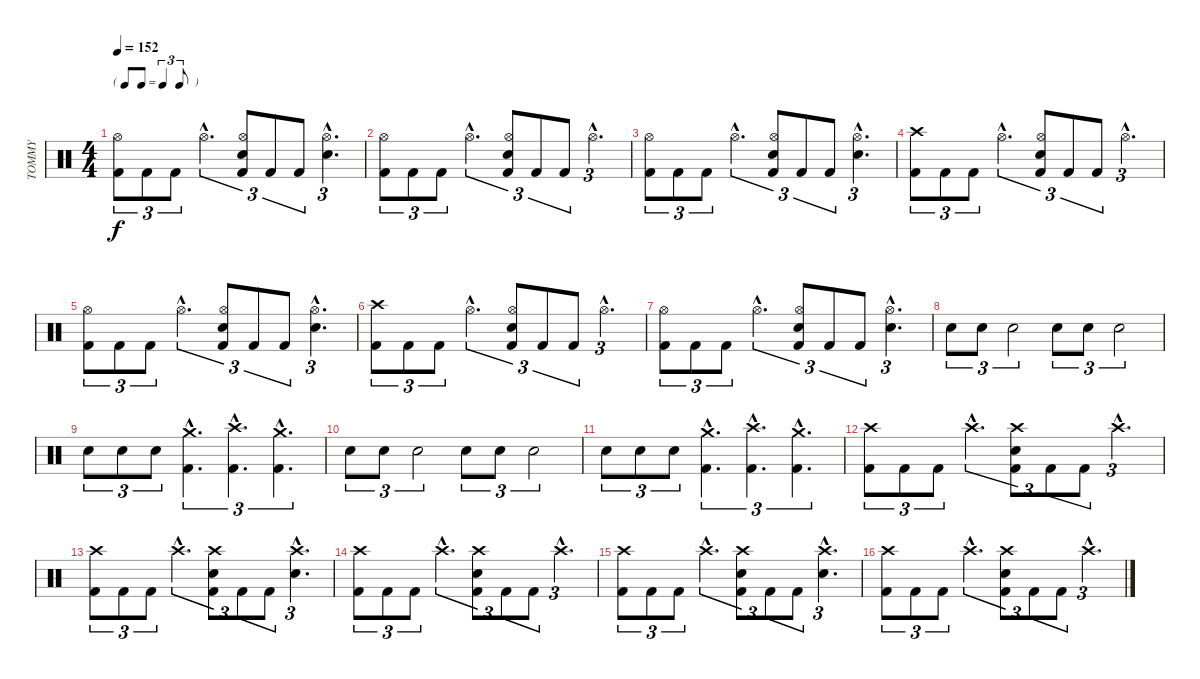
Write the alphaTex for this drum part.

\track ("TOMMY" "TOMMY") {instrument percussion}
\staff {score}
\articulation defaults
\ts (4 4)
\tf triplet8th
\tempo 152
\clef neutral
\ks c
("Kick (hit) 2" "Hi-Hat (open)").8{tu (3 2) dy f} "Kick (hit) 2".8{tu (3 2)} "Kick (hit) 2".8{tu (3 2)} "Hi-Hat (open)"{hac}.4{d tu (3 2)} ("Snare (hit) 2" "Kick (hit) 2" "Hi-Hat (open)").8{tu (3 2)} "Kick (hit) 2".8{tu (3 2)} "Kick (hit) 2".8{tu (3 2)} ("Snare (hit) 2"{hac} "Hi-Hat (open)"{hac}).4{d tu (3 2)} |
("Kick (hit) 2" "Hi-Hat (open)").8{tu (3 2)} "Kick (hit) 2".8{tu (3 2)} "Kick (hit) 2".8{tu (3 2)} "Hi-Hat (open)"{hac}.4{d tu (3 2)} ("Snare (hit) 2" "Kick (hit) 2" "Hi-Hat (open)").8{tu (3 2)} "Kick (hit) 2".8{tu (3 2)} "Kick (hit) 2".8{tu (3 2)} "Hi-Hat (open)"{hac}.4{d tu (3 2)} |
("Kick (hit) 2" "Hi-Hat (open)").8{tu (3 2)} "Kick (hit) 2".8{tu (3 2)} "Kick (hit) 2".8{tu (3 2)} "Hi-Hat (open)"{hac}.4{d tu (3 2)} ("Snare (hit) 2" "Kick (hit) 2" "Hi-Hat (open)").8{tu (3 2)} "Kick (hit) 2".8{tu (3 2)} "Kick (hit) 2".8{tu (3 2)} ("Snare (hit) 2"{hac} "Hi-Hat (open)"{hac}).4{d tu (3 2)} |
("Kick (hit) 2" "Crash high (hit)").8{tu (3 2)} "Kick (hit) 2".8{tu (3 2)} "Kick (hit) 2".8{tu (3 2)} "Hi-Hat (open)"{hac}.4{d tu (3 2)} ("Snare (hit) 2" "Kick (hit) 2" "Hi-Hat (open)").8{tu (3 2)} "Kick (hit) 2".8{tu (3 2)} "Kick (hit) 2".8{tu (3 2)} "Hi-Hat (open)"{hac}.4{d tu (3 2)} |
("Kick (hit) 2" "Hi-Hat (open)").8{tu (3 2)} "Kick (hit) 2".8{tu (3 2)} "Kick (hit) 2".8{tu (3 2)} "Hi-Hat (open)"{hac}.4{d tu (3 2)} ("Snare (hit) 2" "Kick (hit) 2" "Hi-Hat (open)").8{tu (3 2)} "Kick (hit) 2".8{tu (3 2)} "Kick (hit) 2".8{tu (3 2)} ("Snare (hit) 2"{hac} "Hi-Hat (open)"{hac}).4{d tu (3 2)} |
("Kick (hit) 2" "Crash high (hit)").8{tu (3 2)} "Kick (hit) 2".8{tu (3 2)} "Kick (hit) 2".8{tu (3 2)} "Hi-Hat (open)"{hac}.4{d tu (3 2)} ("Snare (hit) 2" "Kick (hit) 2" "Hi-Hat (open)").8{tu (3 2)} "Kick (hit) 2".8{tu (3 2)} "Kick (hit) 2".8{tu (3 2)} "Hi-Hat (open)"{hac}.4{d tu (3 2)} |
("Kick (hit) 2" "Hi-Hat (open)").8{tu (3 2)} "Kick (hit) 2".8{tu (3 2)} "Kick (hit) 2".8{tu (3 2)} "Hi-Hat (open)"{hac}.4{d tu (3 2)} ("Snare (hit) 2" "Kick (hit) 2" "Hi-Hat (open)").8{tu (3 2)} "Kick (hit) 2".8{tu (3 2)} "Kick (hit) 2".8{tu (3 2)} ("Snare (hit) 2"{hac} "Hi-Hat (open)"{hac}).4{d tu (3 2)} |
"Snare (hit) 2".8{tu (3 2)} "Snare (hit) 2".8{tu (3 2)} "Snare (hit) 2".2{tu (3 2)} "Snare (hit) 2".8{tu (3 2)} "Snare (hit) 2".8{tu (3 2)} "Snare (hit) 2".2{tu (3 2)} |
"Snare (hit) 2".8{tu (3 2)} "Snare (hit) 2".8{tu (3 2)} "Snare (hit) 2".8{tu (3 2)} ("Kick (hit) 2"{hac} "Crash medium (hit)"{hac}).4{d tu (3 2)} ("Kick (hit) 2"{hac} "Crash high (hit)"{hac}).4{d tu (3 2)} ("Kick (hit) 2"{hac} "Crash medium (hit)"{hac}).4{d tu (3 2)} |
"Snare (hit) 2".8{tu (3 2)} "Snare (hit) 2".8{tu (3 2)} "Snare (hit) 2".2{tu (3 2)} "Snare (hit) 2".8{tu (3 2)} "Snare (hit) 2".8{tu (3 2)} "Snare (hit) 2".2{tu (3 2)} |
"Snare (hit) 2".8{tu (3 2)} "Snare (hit) 2".8{tu (3 2)} "Snare (hit) 2".8{tu (3 2)} ("Kick (hit) 2"{hac} "Crash medium (hit)"{hac}).4{d tu (3 2)} ("Kick (hit) 2"{hac} "Crash high (hit)"{hac}).4{d tu (3 2)} ("Kick (hit) 2"{hac} "Crash medium (hit)"{hac}).4{d tu (3 2)} |
("Kick (hit) 2" "Crash high (hit)").8{tu (3 2)} "Kick (hit) 2".8{tu (3 2)} "Kick (hit) 2".8{tu (3 2)} "Crash high (hit)"{hac}.4{d tu (3 2)} ("Snare (hit) 2" "Kick (hit) 2" "Crash high (hit)").8{tu (3 2)} "Kick (hit) 2".8{tu (3 2)} "Kick (hit) 2".8{tu (3 2)} "Crash high (hit)"{hac}.4{d tu (3 2)} |
("Kick (hit) 2" "Crash high (hit)").8{tu (3 2)} "Kick (hit) 2".8{tu (3 2)} "Kick (hit) 2".8{tu (3 2)} "Crash high (hit)"{hac}.4{d tu (3 2)} ("Snare (hit) 2" "Kick (hit) 2" "Crash high (hit)").8{tu (3 2)} "Kick (hit) 2".8{tu (3 2)} "Kick (hit) 2".8{tu (3 2)} ("Snare (hit) 2"{hac} "Crash high (hit)"{hac}).4{d tu (3 2)} |
("Kick (hit) 2" "Crash high (hit)").8{tu (3 2)} "Kick (hit) 2".8{tu (3 2)} "Kick (hit) 2".8{tu (3 2)} "Crash high (hit)"{hac}.4{d tu (3 2)} ("Snare (hit) 2" "Kick (hit) 2" "Crash high (hit)").8{tu (3 2)} "Kick (hit) 2".8{tu (3 2)} "Kick (hit) 2".8{tu (3 2)} "Crash high (hit)"{hac}.4{d tu (3 2)} |
("Kick (hit) 2" "Crash high (hit)").8{tu (3 2)} "Kick (hit) 2".8{tu (3 2)} "Kick (hit) 2".8{tu (3 2)} "Crash high (hit)"{hac}.4{d tu (3 2)} ("Snare (hit) 2" "Kick (hit) 2" "Crash high (hit)").8{tu (3 2)} "Kick (hit) 2".8{tu (3 2)} "Kick (hit) 2".8{tu (3 2)} ("Snare (hit) 2"{hac} "Crash high (hit)"{hac}).4{d tu (3 2)} |
("Kick (hit) 2" "Crash high (hit)").8{tu (3 2)} "Kick (hit) 2".8{tu (3 2)} "Kick (hit) 2".8{tu (3 2)} "Crash high (hit)"{hac}.4{d tu (3 2)} ("Snare (hit) 2" "Kick (hit) 2" "Crash high (hit)").8{tu (3 2)} "Kick (hit) 2".8{tu (3 2)} "Kick (hit) 2".8{tu (3 2)} "Crash high (hit)"{hac}.4{d tu (3 2)}
